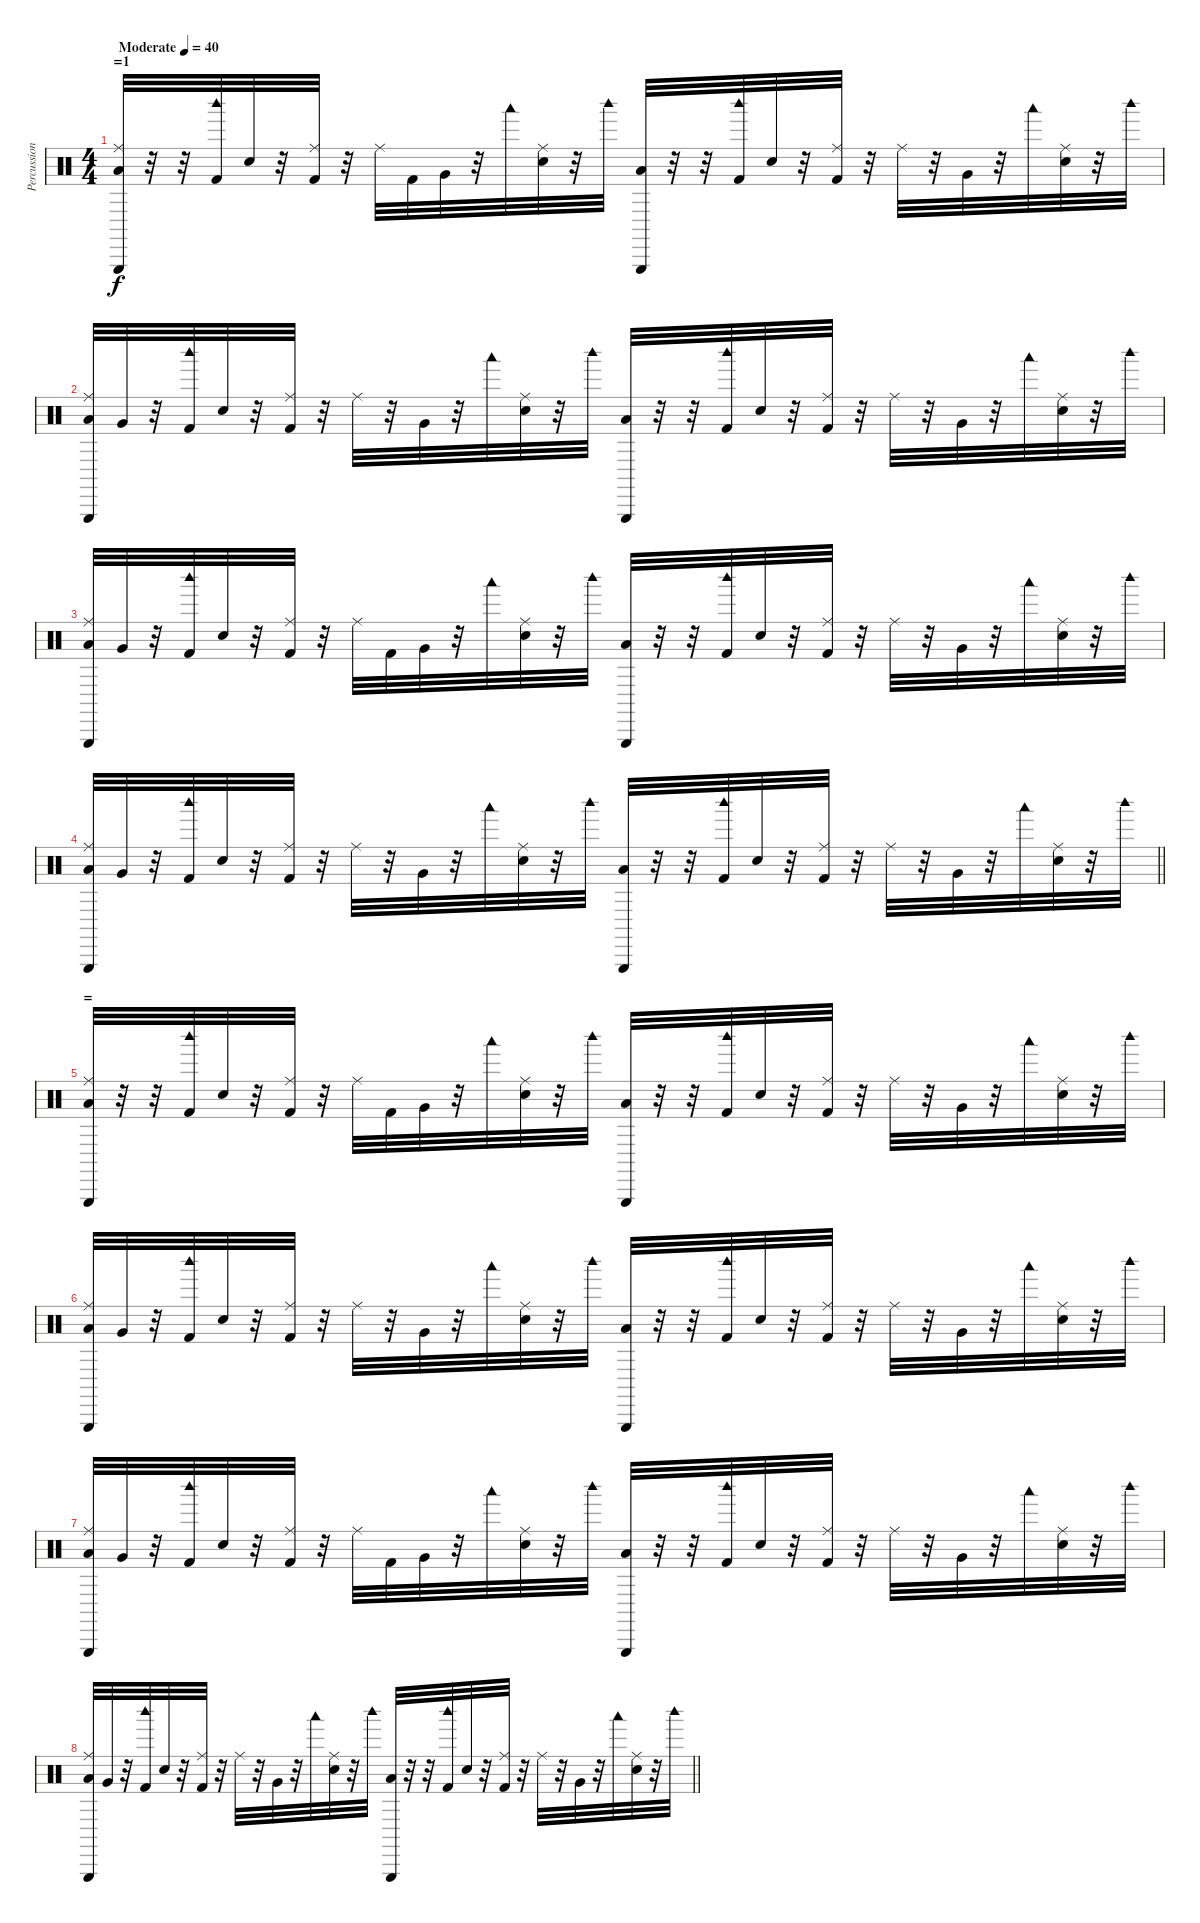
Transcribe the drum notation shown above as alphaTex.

\track ("Percussion" "Percussion") {instrument percussion}
\staff {score}
\articulation defaults
\ts (4 4)
\section ("" "=1")
\tempo (40 "Moderate")
\clef neutral
\ks c
("Low Floor Tom (hit)" "Ride (middle)" "Triangle (hit)").32{dy f} r.32 r.32 ("Kick (hit) 2" "Woodblock high (hit)").32 "Electric Snare (hit)".32 r.32 ("Kick (hit) 2" "Ride (middle)").32 r.32 "Ride (middle)".32 "Kick (hit) 2".32 "Very Low Tom (hit)".32 r.32 "Woodblock low (hit)".32 ("Electric Snare (hit)" "Ride (middle)").32 r.32 "Woodblock high (hit)".32 ("Low Floor Tom (hit)" "Triangle (hit)").32 r.32 r.32 ("Kick (hit) 2" "Woodblock high (hit)").32 "Electric Snare (hit)".32 r.32 ("Kick (hit) 2" "Ride (middle)").32 r.32 "Ride (middle)".32 r.32 "Very Low Tom (hit)".32 r.32 "Woodblock low (hit)".32 ("Electric Snare (hit)" "Ride (middle)").32 r.32 "Woodblock high (hit)".32 |
("Low Floor Tom (hit)" "Ride (middle)" "Triangle (hit)").32 "Very Low Tom (hit)".32 r.32 ("Kick (hit) 2" "Woodblock high (hit)").32 "Electric Snare (hit)".32 r.32 ("Kick (hit) 2" "Ride (middle)").32 r.32 "Ride (middle)".32 r.32 "Very Low Tom (hit)".32 r.32 "Woodblock low (hit)".32 ("Electric Snare (hit)" "Ride (middle)").32 r.32 "Woodblock high (hit)".32 ("Low Floor Tom (hit)" "Triangle (hit)").32 r.32 r.32 ("Kick (hit) 2" "Woodblock high (hit)").32 "Electric Snare (hit)".32 r.32 ("Kick (hit) 2" "Ride (middle)").32 r.32 "Ride (middle)".32 r.32 "Very Low Tom (hit)".32 r.32 "Woodblock low (hit)".32 ("Electric Snare (hit)" "Ride (middle)").32 r.32 "Woodblock high (hit)".32 |
("Low Floor Tom (hit)" "Ride (middle)" "Triangle (hit)").32 "Very Low Tom (hit)".32 r.32 ("Kick (hit) 2" "Woodblock high (hit)").32 "Electric Snare (hit)".32 r.32 ("Kick (hit) 2" "Ride (middle)").32 r.32 "Ride (middle)".32 "Kick (hit) 2".32 "Very Low Tom (hit)".32 r.32 "Woodblock low (hit)".32 ("Electric Snare (hit)" "Ride (middle)").32 r.32 "Woodblock high (hit)".32 ("Low Floor Tom (hit)" "Triangle (hit)").32 r.32 r.32 ("Kick (hit) 2" "Woodblock high (hit)").32 "Electric Snare (hit)".32 r.32 ("Kick (hit) 2" "Ride (middle)").32 r.32 "Ride (middle)".32 r.32 "Very Low Tom (hit)".32 r.32 "Woodblock low (hit)".32 ("Electric Snare (hit)" "Ride (middle)").32 r.32 "Woodblock high (hit)".32 |
\barLineRight lightlight
("Low Floor Tom (hit)" "Ride (middle)" "Triangle (hit)").32 "Very Low Tom (hit)".32 r.32 ("Kick (hit) 2" "Woodblock high (hit)").32 "Electric Snare (hit)".32 r.32 ("Kick (hit) 2" "Ride (middle)").32 r.32 "Ride (middle)".32 r.32 "Very Low Tom (hit)".32 r.32 "Woodblock low (hit)".32 ("Electric Snare (hit)" "Ride (middle)").32 r.32 "Woodblock high (hit)".32 ("Low Floor Tom (hit)" "Triangle (hit)").32 r.32 r.32 ("Kick (hit) 2" "Woodblock high (hit)").32 "Electric Snare (hit)".32 r.32 ("Kick (hit) 2" "Ride (middle)").32 r.32 "Ride (middle)".32 r.32 "Very Low Tom (hit)".32 r.32 "Woodblock low (hit)".32 ("Electric Snare (hit)" "Ride (middle)").32 r.32 "Woodblock high (hit)".32 |
\section ("" "=")
("Low Floor Tom (hit)" "Ride (middle)" "Triangle (hit)").32 r.32 r.32 ("Kick (hit) 2" "Woodblock high (hit)").32 "Electric Snare (hit)".32 r.32 ("Kick (hit) 2" "Ride (middle)").32 r.32 "Ride (middle)".32 "Kick (hit) 2".32 "Very Low Tom (hit)".32 r.32 "Woodblock low (hit)".32 ("Electric Snare (hit)" "Ride (middle)").32 r.32 "Woodblock high (hit)".32 ("Low Floor Tom (hit)" "Triangle (hit)").32 r.32 r.32 ("Kick (hit) 2" "Woodblock high (hit)").32 "Electric Snare (hit)".32 r.32 ("Kick (hit) 2" "Ride (middle)").32 r.32 "Ride (middle)".32 r.32 "Very Low Tom (hit)".32 r.32 "Woodblock low (hit)".32 ("Electric Snare (hit)" "Ride (middle)").32 r.32 "Woodblock high (hit)".32 |
("Low Floor Tom (hit)" "Ride (middle)" "Triangle (hit)").32 "Very Low Tom (hit)".32 r.32 ("Kick (hit) 2" "Woodblock high (hit)").32 "Electric Snare (hit)".32 r.32 ("Kick (hit) 2" "Ride (middle)").32 r.32 "Ride (middle)".32 r.32 "Very Low Tom (hit)".32 r.32 "Woodblock low (hit)".32 ("Electric Snare (hit)" "Ride (middle)").32 r.32 "Woodblock high (hit)".32 ("Low Floor Tom (hit)" "Triangle (hit)").32 r.32 r.32 ("Kick (hit) 2" "Woodblock high (hit)").32 "Electric Snare (hit)".32 r.32 ("Kick (hit) 2" "Ride (middle)").32 r.32 "Ride (middle)".32 r.32 "Very Low Tom (hit)".32 r.32 "Woodblock low (hit)".32 ("Electric Snare (hit)" "Ride (middle)").32 r.32 "Woodblock high (hit)".32 |
("Low Floor Tom (hit)" "Ride (middle)" "Triangle (hit)").32 "Very Low Tom (hit)".32 r.32 ("Kick (hit) 2" "Woodblock high (hit)").32 "Electric Snare (hit)".32 r.32 ("Kick (hit) 2" "Ride (middle)").32 r.32 "Ride (middle)".32 "Kick (hit) 2".32 "Very Low Tom (hit)".32 r.32 "Woodblock low (hit)".32 ("Electric Snare (hit)" "Ride (middle)").32 r.32 "Woodblock high (hit)".32 ("Low Floor Tom (hit)" "Triangle (hit)").32 r.32 r.32 ("Kick (hit) 2" "Woodblock high (hit)").32 "Electric Snare (hit)".32 r.32 ("Kick (hit) 2" "Ride (middle)").32 r.32 "Ride (middle)".32 r.32 "Very Low Tom (hit)".32 r.32 "Woodblock low (hit)".32 ("Electric Snare (hit)" "Ride (middle)").32 r.32 "Woodblock high (hit)".32 |
\barLineRight lightlight
("Low Floor Tom (hit)" "Ride (middle)" "Triangle (hit)").32 "Very Low Tom (hit)".32 r.32 ("Kick (hit) 2" "Woodblock high (hit)").32 "Electric Snare (hit)".32 r.32 ("Kick (hit) 2" "Ride (middle)").32 r.32 "Ride (middle)".32 r.32 "Very Low Tom (hit)".32 r.32 "Woodblock low (hit)".32 ("Electric Snare (hit)" "Ride (middle)").32 r.32 "Woodblock high (hit)".32 ("Low Floor Tom (hit)" "Triangle (hit)").32 r.32 r.32 ("Kick (hit) 2" "Woodblock high (hit)").32 "Electric Snare (hit)".32 r.32 ("Kick (hit) 2" "Ride (middle)").32 r.32 "Ride (middle)".32 r.32 "Very Low Tom (hit)".32 r.32 "Woodblock low (hit)".32 ("Electric Snare (hit)" "Ride (middle)").32 r.32 "Woodblock high (hit)".32
